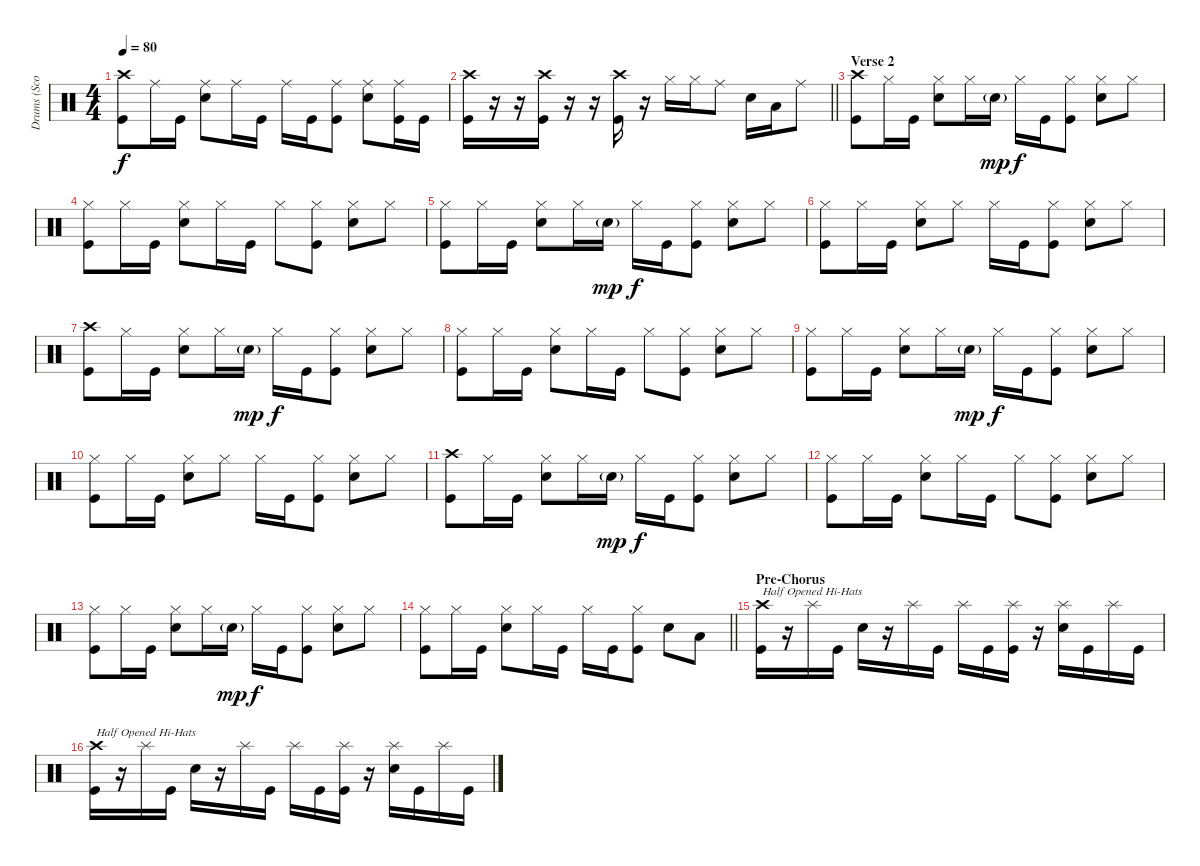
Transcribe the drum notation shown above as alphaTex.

\track ("Drums (Scott Phillips)" "Drums (Sco") {instrument percussion}
\staff {score}
\articulation defaults
\ts (4 4)
\tempo 80
\clef neutral
\ks c
("Crash high (hit)" "Kick (hit)").8{dy f} "Ride (middle)".16 "Kick (hit)".16 ("Ride (middle)" "Snare (hit) 2").8 "Ride (middle)".16 "Kick (hit)".16 "Ride (middle)".16 "Kick (hit)".16 ("Ride (middle)" "Kick (hit)").8 ("Ride (middle)" "Snare (hit) 2").8 ("Ride (middle)" "Kick (hit)").16 "Kick (hit)".16 |
\barLineRight lightlight
("Crash high (hit)" "Kick (hit)").16 r.16 r.16 ("Crash high (hit)" "Kick (hit)").16 r.16 r.16 ("Crash high (hit)" "Kick (hit)").16 r.16 "Hi-Hat (closed)".16 "Hi-Hat (closed)".16 "Ride (middle)".8 "Snare (hit) 2".16 "Low Tom (hit)".16 "Ride (middle)".8 |
\section ("" "Verse 2")
("Crash high (hit)" "Kick (hit)").8 "Hi-Hat (closed)".16 "Kick (hit)".16 ("Hi-Hat (closed)" "Snare (hit) 2").8 "Hi-Hat (closed)".16 "Snare (hit) 2"{g}.16{dy mp} "Hi-Hat (closed)".16{dy f} "Kick (hit)".16 ("Hi-Hat (closed)" "Kick (hit)").8 ("Hi-Hat (closed)" "Snare (hit) 2").8 "Hi-Hat (closed)".8 |
("Hi-Hat (closed)" "Kick (hit)").8 "Hi-Hat (closed)".16 "Kick (hit)".16 ("Hi-Hat (closed)" "Snare (hit) 2").8 "Hi-Hat (closed)".16 "Kick (hit)".16 "Hi-Hat (closed)".8 ("Hi-Hat (closed)" "Kick (hit)").8 ("Hi-Hat (closed)" "Snare (hit) 2").8 "Hi-Hat (closed)".8 |
("Hi-Hat (closed)" "Kick (hit)").8 "Hi-Hat (closed)".16 "Kick (hit)".16 ("Hi-Hat (closed)" "Snare (hit) 2").8 "Hi-Hat (closed)".16 "Snare (hit) 2"{g}.16{dy mp} "Hi-Hat (closed)".16{dy f} "Kick (hit)".16 ("Hi-Hat (closed)" "Kick (hit)").8 ("Hi-Hat (closed)" "Snare (hit) 2").8 "Hi-Hat (closed)".8 |
("Hi-Hat (closed)" "Kick (hit)").8 "Hi-Hat (closed)".16 "Kick (hit)".16 ("Hi-Hat (closed)" "Snare (hit) 2").8 "Hi-Hat (closed)".8 "Hi-Hat (closed)".16 "Kick (hit)".16 ("Hi-Hat (closed)" "Kick (hit)").8 ("Hi-Hat (closed)" "Snare (hit) 2").8 "Hi-Hat (closed)".8 |
("Crash high (hit)" "Kick (hit)").8 "Hi-Hat (closed)".16 "Kick (hit)".16 ("Hi-Hat (closed)" "Snare (hit) 2").8 "Hi-Hat (closed)".16 "Snare (hit) 2"{g}.16{dy mp} "Hi-Hat (closed)".16{dy f} "Kick (hit)".16 ("Hi-Hat (closed)" "Kick (hit)").8 ("Hi-Hat (closed)" "Snare (hit) 2").8 "Hi-Hat (closed)".8 |
("Hi-Hat (closed)" "Kick (hit)").8 "Hi-Hat (closed)".16 "Kick (hit)".16 ("Hi-Hat (closed)" "Snare (hit) 2").8 "Hi-Hat (closed)".16 "Kick (hit)".16 "Hi-Hat (closed)".8 ("Hi-Hat (closed)" "Kick (hit)").8 ("Hi-Hat (closed)" "Snare (hit) 2").8 "Hi-Hat (closed)".8 |
("Hi-Hat (closed)" "Kick (hit)").8 "Hi-Hat (closed)".16 "Kick (hit)".16 ("Hi-Hat (closed)" "Snare (hit) 2").8 "Hi-Hat (closed)".16 "Snare (hit) 2"{g}.16{dy mp} "Hi-Hat (closed)".16{dy f} "Kick (hit)".16 ("Hi-Hat (closed)" "Kick (hit)").8 ("Hi-Hat (closed)" "Snare (hit) 2").8 "Hi-Hat (closed)".8 |
("Hi-Hat (closed)" "Kick (hit)").8 "Hi-Hat (closed)".16 "Kick (hit)".16 ("Hi-Hat (closed)" "Snare (hit) 2").8 "Hi-Hat (closed)".8 "Hi-Hat (closed)".16 "Kick (hit)".16 ("Hi-Hat (closed)" "Kick (hit)").8 ("Hi-Hat (closed)" "Snare (hit) 2").8 "Hi-Hat (closed)".8 |
("Crash high (hit)" "Kick (hit)").8 "Hi-Hat (closed)".16 "Kick (hit)".16 ("Hi-Hat (closed)" "Snare (hit) 2").8 "Hi-Hat (closed)".16 "Snare (hit) 2"{g}.16{dy mp} "Hi-Hat (closed)".16{dy f} "Kick (hit)".16 ("Hi-Hat (closed)" "Kick (hit)").8 ("Hi-Hat (closed)" "Snare (hit) 2").8 "Hi-Hat (closed)".8 |
("Hi-Hat (closed)" "Kick (hit)").8 "Hi-Hat (closed)".16 "Kick (hit)".16 ("Hi-Hat (closed)" "Snare (hit) 2").8 "Hi-Hat (closed)".16 "Kick (hit)".16 "Hi-Hat (closed)".8 ("Hi-Hat (closed)" "Kick (hit)").8 ("Hi-Hat (closed)" "Snare (hit) 2").8 "Hi-Hat (closed)".8 |
("Hi-Hat (closed)" "Kick (hit)").8 "Hi-Hat (closed)".16 "Kick (hit)".16 ("Hi-Hat (closed)" "Snare (hit) 2").8 "Hi-Hat (closed)".16 "Snare (hit) 2"{g}.16{dy mp} "Hi-Hat (closed)".16{dy f} "Kick (hit)".16 ("Hi-Hat (closed)" "Kick (hit)").8 ("Hi-Hat (closed)" "Snare (hit) 2").8 "Hi-Hat (closed)".8 |
\barLineRight lightlight
("Hi-Hat (closed)" "Kick (hit)").8 "Hi-Hat (closed)".16 "Kick (hit)".16 ("Hi-Hat (closed)" "Snare (hit) 2").8 "Hi-Hat (closed)".16 "Kick (hit)".16 "Hi-Hat (closed)".16 "Kick (hit)".16 ("Hi-Hat (closed)" "Kick (hit)").8 "Snare (hit) 2".8 "Low Tom (hit)".8 |
\section ("" "Pre-Chorus")
("Crash high (hit)" "Kick (hit)").16{txt "Half Opened Hi-Hats"} r.16 "Splash (hit)".16 "Kick (hit)".16 "Snare (hit) 2".16 r.16 "Splash (hit)".16 "Kick (hit)".16 "Splash (hit)".16 "Kick (hit)".16 ("Splash (hit)" "Kick (hit)").16 r.16 ("Splash (hit)" "Snare (hit) 2").16 "Kick (hit)".16 "Splash (hit)".16 "Kick (hit)".16 |
("Crash high (hit)" "Kick (hit)").16{txt "Half Opened Hi-Hats"} r.16 "Splash (hit)".16 "Kick (hit)".16 "Snare (hit) 2".16 r.16 "Splash (hit)".16 "Kick (hit)".16 "Splash (hit)".16 "Kick (hit)".16 ("Splash (hit)" "Kick (hit)").16 r.16 ("Splash (hit)" "Snare (hit) 2").16 "Kick (hit)".16 "Splash (hit)".16 "Kick (hit)".16
